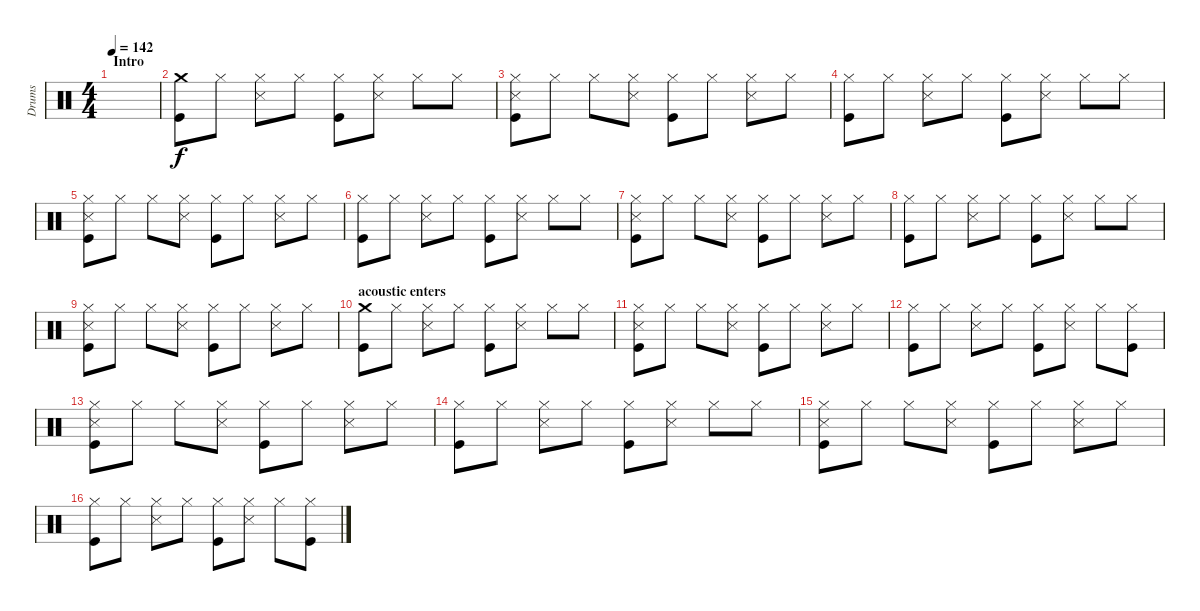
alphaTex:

\track ("Drums" "Drums") {instrument percussion}
\staff {score}
\articulation defaults
\ts (4 4)
\section ("" "Intro")
\tempo 142
\clef neutral
\ks c
|
("Crash medium (hit)" "Kick (hit)").8 "Hi-Hat (closed)".8 ("Hi-Hat (closed)" "Snare (side stick) 3").8 "Hi-Hat (closed)".8 ("Hi-Hat (closed)" "Kick (hit)").8 ("Hi-Hat (closed)" "Snare (side stick) 3").8 "Hi-Hat (closed)".8 "Hi-Hat (closed)".8 |
("Hi-Hat (closed)" "Snare (side stick) 3" "Kick (hit)").8 "Hi-Hat (closed)".8 "Hi-Hat (closed)".8 ("Hi-Hat (closed)" "Snare (side stick) 3").8 ("Hi-Hat (closed)" "Kick (hit)").8 "Hi-Hat (closed)".8 ("Hi-Hat (closed)" "Snare (side stick) 3").8 "Hi-Hat (closed)".8 |
("Hi-Hat (closed)" "Kick (hit)").8 "Hi-Hat (closed)".8 ("Hi-Hat (closed)" "Snare (side stick) 3").8 "Hi-Hat (closed)".8 ("Hi-Hat (closed)" "Kick (hit)").8 ("Hi-Hat (closed)" "Snare (side stick) 3").8 "Hi-Hat (closed)".8 "Hi-Hat (closed)".8 |
("Hi-Hat (closed)" "Snare (side stick) 3" "Kick (hit)").8 "Hi-Hat (closed)".8 "Hi-Hat (closed)".8 ("Hi-Hat (closed)" "Snare (side stick) 3").8 ("Hi-Hat (closed)" "Kick (hit)").8 "Hi-Hat (closed)".8 ("Hi-Hat (closed)" "Snare (side stick) 3").8 "Hi-Hat (closed)".8 |
("Hi-Hat (closed)" "Kick (hit)").8 "Hi-Hat (closed)".8 ("Hi-Hat (closed)" "Snare (side stick) 3").8 "Hi-Hat (closed)".8 ("Hi-Hat (closed)" "Kick (hit)").8 ("Hi-Hat (closed)" "Snare (side stick) 3").8 "Hi-Hat (closed)".8 "Hi-Hat (closed)".8 |
("Hi-Hat (closed)" "Snare (side stick) 3" "Kick (hit)").8 "Hi-Hat (closed)".8 "Hi-Hat (closed)".8 ("Hi-Hat (closed)" "Snare (side stick) 3").8 ("Hi-Hat (closed)" "Kick (hit)").8 "Hi-Hat (closed)".8 ("Hi-Hat (closed)" "Snare (side stick) 3").8 "Hi-Hat (closed)".8 |
("Hi-Hat (closed)" "Kick (hit)").8 "Hi-Hat (closed)".8 ("Hi-Hat (closed)" "Snare (side stick) 3").8 "Hi-Hat (closed)".8 ("Hi-Hat (closed)" "Kick (hit)").8 ("Hi-Hat (closed)" "Snare (side stick) 3").8 "Hi-Hat (closed)".8 "Hi-Hat (closed)".8 |
("Hi-Hat (closed)" "Snare (side stick) 3" "Kick (hit)").8 "Hi-Hat (closed)".8 "Hi-Hat (closed)".8 ("Hi-Hat (closed)" "Snare (side stick) 3").8 ("Hi-Hat (closed)" "Kick (hit)").8 "Hi-Hat (closed)".8 ("Hi-Hat (closed)" "Snare (side stick) 3").8 "Hi-Hat (closed)".8 |
\section ("" "acoustic enters")
("Crash medium (hit)" "Kick (hit)").8 "Hi-Hat (closed)".8 ("Hi-Hat (closed)" "Snare (side stick) 3").8 "Hi-Hat (closed)".8 ("Hi-Hat (closed)" "Kick (hit)").8 ("Hi-Hat (closed)" "Snare (side stick) 3").8 "Hi-Hat (closed)".8 "Hi-Hat (closed)".8 |
("Hi-Hat (closed)" "Snare (side stick) 3" "Kick (hit)").8 "Hi-Hat (closed)".8 "Hi-Hat (closed)".8 ("Hi-Hat (closed)" "Snare (side stick) 3").8 ("Hi-Hat (closed)" "Kick (hit)").8 "Hi-Hat (closed)".8 ("Hi-Hat (closed)" "Snare (side stick) 3").8 "Hi-Hat (closed)".8 |
("Hi-Hat (closed)" "Kick (hit)").8 "Hi-Hat (closed)".8 ("Hi-Hat (closed)" "Snare (side stick) 3").8 "Hi-Hat (closed)".8 ("Hi-Hat (closed)" "Kick (hit)").8 ("Hi-Hat (closed)" "Snare (side stick) 3").8 "Hi-Hat (closed)".8 ("Hi-Hat (closed)" "Kick (hit)").8 |
("Hi-Hat (closed)" "Snare (side stick) 3" "Kick (hit)").8 "Hi-Hat (closed)".8 "Hi-Hat (closed)".8 ("Hi-Hat (closed)" "Snare (side stick) 3").8 ("Hi-Hat (closed)" "Kick (hit)").8 "Hi-Hat (closed)".8 ("Hi-Hat (closed)" "Snare (side stick) 3").8 "Hi-Hat (closed)".8 |
("Hi-Hat (closed)" "Kick (hit)").8 "Hi-Hat (closed)".8 ("Hi-Hat (closed)" "Snare (side stick) 3").8 "Hi-Hat (closed)".8 ("Hi-Hat (closed)" "Kick (hit)").8 ("Hi-Hat (closed)" "Snare (side stick) 3").8 "Hi-Hat (closed)".8 "Hi-Hat (closed)".8 |
("Hi-Hat (closed)" "Snare (side stick) 3" "Kick (hit)").8 "Hi-Hat (closed)".8 "Hi-Hat (closed)".8 ("Hi-Hat (closed)" "Snare (side stick) 3").8 ("Hi-Hat (closed)" "Kick (hit)").8 "Hi-Hat (closed)".8 ("Hi-Hat (closed)" "Snare (side stick) 3").8 "Hi-Hat (closed)".8 |
("Hi-Hat (closed)" "Kick (hit)").8 "Hi-Hat (closed)".8 ("Hi-Hat (closed)" "Snare (side stick) 3").8 "Hi-Hat (closed)".8 ("Hi-Hat (closed)" "Kick (hit)").8 ("Hi-Hat (closed)" "Snare (side stick) 3").8 "Hi-Hat (closed)".8 ("Hi-Hat (closed)" "Kick (hit)").8
